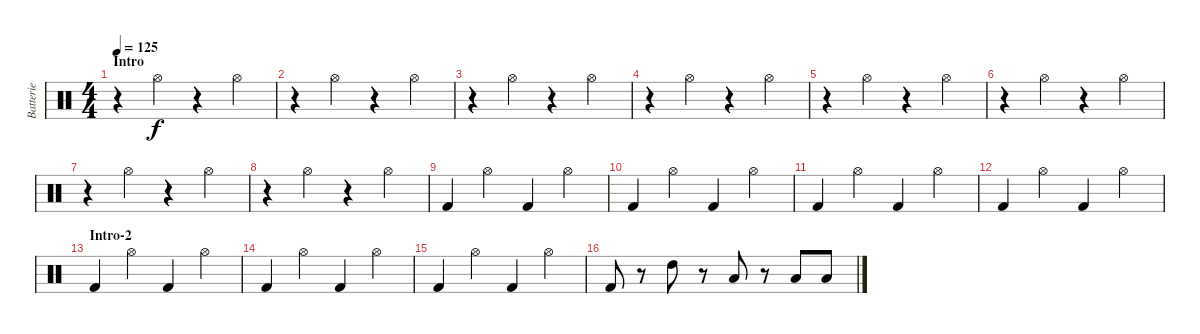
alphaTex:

\track ("Batterie" "Batterie") {instrument percussion}
\staff {score}
\articulation defaults
\ts (4 4)
\section ("" "Intro")
\tempo 125
\clef neutral
\ks c
r.4{dy f} "Hi-Hat (open)".4 r.4 "Hi-Hat (open)".4 |
r.4 "Hi-Hat (open)".4 r.4 "Hi-Hat (open)".4 |
r.4 "Hi-Hat (open)".4 r.4 "Hi-Hat (open)".4 |
r.4 "Hi-Hat (open)".4 r.4 "Hi-Hat (open)".4 |
r.4 "Hi-Hat (open)".4 r.4 "Hi-Hat (open)".4 |
r.4 "Hi-Hat (open)".4 r.4 "Hi-Hat (open)".4 |
r.4 "Hi-Hat (open)".4 r.4 "Hi-Hat (open)".4 |
r.4 "Hi-Hat (open)".4 r.4 "Hi-Hat (open)".4 |
"Kick (hit) 2".4 "Hi-Hat (open)".4 "Kick (hit) 2".4 "Hi-Hat (open)".4 |
"Kick (hit) 2".4 "Hi-Hat (open)".4 "Kick (hit) 2".4 "Hi-Hat (open)".4 |
"Kick (hit) 2".4 "Hi-Hat (open)".4 "Kick (hit) 2".4 "Hi-Hat (open)".4 |
"Kick (hit) 2".4 "Hi-Hat (open)".4 "Kick (hit) 2".4 "Hi-Hat (open)".4 |
\section ("" "Intro-2")
"Kick (hit) 2".4 "Hi-Hat (open)".4 "Kick (hit) 2".4 "Hi-Hat (open)".4 |
"Kick (hit) 2".4 "Hi-Hat (open)".4 "Kick (hit) 2".4 "Hi-Hat (open)".4 |
"Kick (hit) 2".4 "Hi-Hat (open)".4 "Kick (hit) 2".4 "Hi-Hat (open)".4 |
"Kick (hit) 2".8 r.8 "High Tom (hit)".8 r.8 "Low Tom (hit)".8 r.8 "Low Tom (hit)".8 "Low Floor Tom (hit)".8
